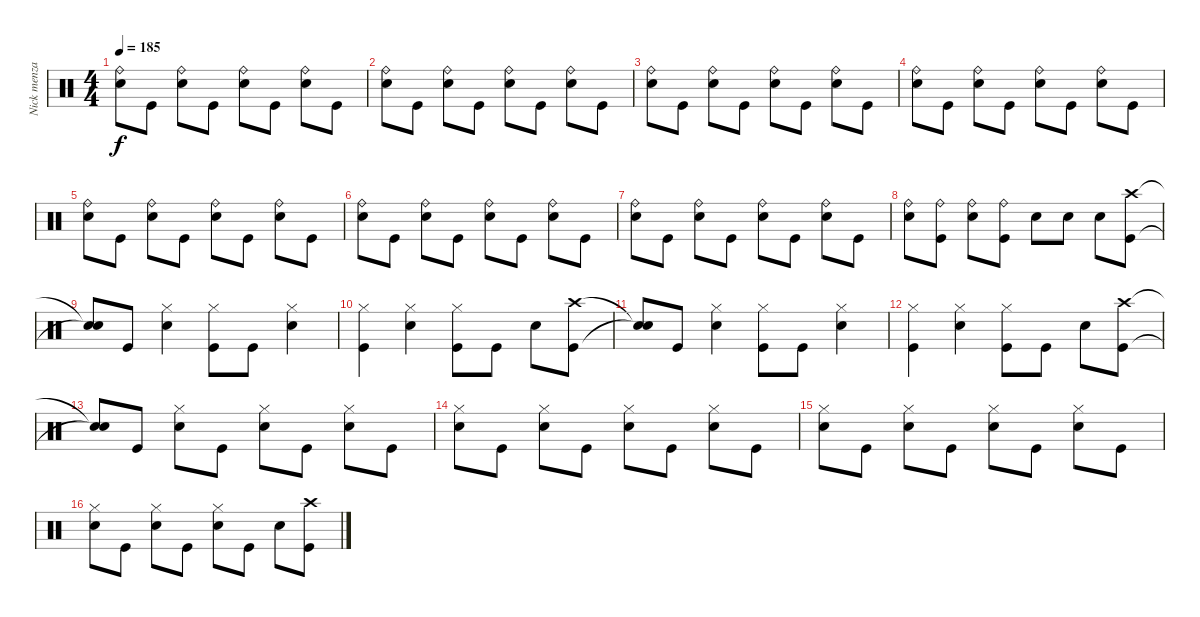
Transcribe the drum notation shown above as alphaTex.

\track ("Nick menza/Jimmy de grasso" "Nick menza") {instrument percussion}
\staff {score}
\articulation defaults
\ts (4 4)
\tempo 185
\clef neutral
\ks c
("Ride (bell)" "Snare (hit) 2").8{dy f} "Kick (hit)".8 ("Ride (bell)" "Snare (hit) 2").8 "Kick (hit)".8 ("Ride (bell)" "Snare (hit) 2").8 "Kick (hit)".8 ("Ride (bell)" "Snare (hit) 2").8 "Kick (hit)".8 |
("Ride (bell)" "Snare (hit) 2").8 "Kick (hit)".8 ("Ride (bell)" "Snare (hit) 2").8 "Kick (hit)".8 ("Ride (bell)" "Snare (hit) 2").8 "Kick (hit)".8 ("Ride (bell)" "Snare (hit) 2").8 "Kick (hit)".8 |
("Ride (bell)" "Snare (hit) 2").8 "Kick (hit)".8 ("Ride (bell)" "Snare (hit) 2").8 "Kick (hit)".8 ("Ride (bell)" "Snare (hit) 2").8 "Kick (hit)".8 ("Ride (bell)" "Snare (hit) 2").8 "Kick (hit)".8 |
("Ride (bell)" "Snare (hit) 2").8 "Kick (hit)".8 ("Ride (bell)" "Snare (hit) 2").8 "Kick (hit)".8 ("Ride (bell)" "Snare (hit) 2").8 "Kick (hit)".8 ("Ride (bell)" "Snare (hit) 2").8 "Kick (hit)".8 |
("Ride (bell)" "Snare (hit) 2").8 "Kick (hit)".8 ("Ride (bell)" "Snare (hit) 2").8 "Kick (hit)".8 ("Ride (bell)" "Snare (hit) 2").8 "Kick (hit)".8 ("Ride (bell)" "Snare (hit) 2").8 "Kick (hit)".8 |
("Ride (bell)" "Snare (hit) 2").8 "Kick (hit)".8 ("Ride (bell)" "Snare (hit) 2").8 "Kick (hit)".8 ("Ride (bell)" "Snare (hit) 2").8 "Kick (hit)".8 ("Ride (bell)" "Snare (hit) 2").8 "Kick (hit)".8 |
("Ride (bell)" "Snare (hit) 2").8 "Kick (hit)".8 ("Ride (bell)" "Snare (hit) 2").8 "Kick (hit)".8 ("Ride (bell)" "Snare (hit) 2").8 "Kick (hit)".8 ("Ride (bell)" "Snare (hit) 2").8 "Kick (hit)".8 |
("Ride (bell)" "Snare (hit) 2").8 ("Kick (hit)" "Ride (bell)").8 ("Ride (bell)" "Snare (hit) 2").8 ("Kick (hit)" "Ride (bell)").8 "Snare (hit) 2".8 "Snare (hit) 2".8 "Snare (hit) 2".8 ("Kick (hit)" "Crash high (hit)").8 |
("Snare (hit)"{t} "Snare (hit)"{t}).8 "Kick (hit)".8 ("Hi-Hat (closed)" "Snare (hit) 2").4 ("Kick (hit)" "Hi-Hat (closed)").8 "Kick (hit)".8 ("Hi-Hat (closed)" "Snare (hit) 2").4 |
("Kick (hit)" "Hi-Hat (closed)").4 ("Hi-Hat (closed)" "Snare (hit) 2").4 ("Kick (hit)" "Hi-Hat (closed)").8 "Kick (hit)".8 "Snare (hit) 2".8 ("Kick (hit)" "Crash high (hit)").8 |
("Snare (hit)"{t} "Snare (hit)"{t}).8 "Kick (hit)".8 ("Hi-Hat (closed)" "Snare (hit) 2").4 ("Kick (hit)" "Hi-Hat (closed)").8 "Kick (hit)".8 ("Hi-Hat (closed)" "Snare (hit) 2").4 |
("Kick (hit)" "Hi-Hat (closed)").4 ("Hi-Hat (closed)" "Snare (hit) 2").4 ("Kick (hit)" "Hi-Hat (closed)").8 "Kick (hit)".8 "Snare (hit) 2".8 ("Kick (hit)" "Crash high (hit)").8 |
("Snare (hit)"{t} "Snare (hit)"{t}).8 "Kick (hit)".8 ("Hi-Hat (closed)" "Snare (hit) 2").8 "Kick (hit)".8 ("Hi-Hat (closed)" "Snare (hit) 2").8 "Kick (hit)".8 ("Hi-Hat (closed)" "Snare (hit) 2").8 "Kick (hit)".8 |
("Hi-Hat (closed)" "Snare (hit) 2").8 "Kick (hit)".8 ("Hi-Hat (closed)" "Snare (hit) 2").8 "Kick (hit)".8 ("Hi-Hat (closed)" "Snare (hit) 2").8 "Kick (hit)".8 ("Hi-Hat (closed)" "Snare (hit) 2").8 "Kick (hit)".8 |
("Hi-Hat (closed)" "Snare (hit) 2").8 "Kick (hit)".8 ("Hi-Hat (closed)" "Snare (hit) 2").8 "Kick (hit)".8 ("Hi-Hat (closed)" "Snare (hit) 2").8 "Kick (hit)".8 ("Hi-Hat (closed)" "Snare (hit) 2").8 "Kick (hit)".8 |
("Hi-Hat (closed)" "Snare (hit) 2").8 "Kick (hit)".8 ("Hi-Hat (closed)" "Snare (hit) 2").8 "Kick (hit)".8 ("Hi-Hat (closed)" "Snare (hit) 2").8 "Kick (hit)".8 "Snare (hit) 2".8 ("Kick (hit)" "Crash high (hit)").8
